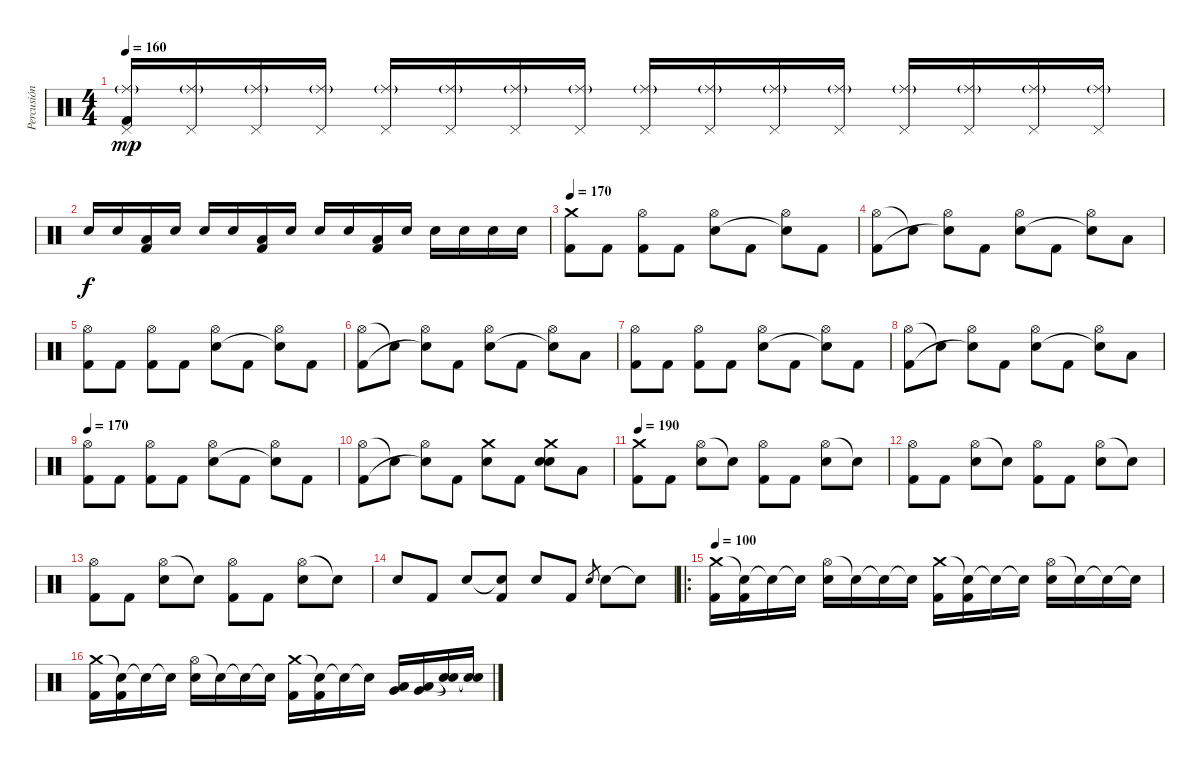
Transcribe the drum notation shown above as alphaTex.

\track ("Percusión" "Percusión") {instrument percussion}
\staff {score}
\articulation defaults
\ts (4 4)
\tempo 160
\clef neutral
\ks c
("Pedal Hi-Hat (hit)" "Ride (middle)"{g} "Kick (hit) 2").16{dy mp} ("Pedal Hi-Hat (hit)" "Ride (middle)"{g}).16 ("Pedal Hi-Hat (hit)" "Ride (middle)"{g}).16 ("Pedal Hi-Hat (hit)" "Ride (middle)"{g}).16 ("Pedal Hi-Hat (hit)" "Ride (middle)"{g}).16 ("Pedal Hi-Hat (hit)" "Ride (middle)"{g}).16 ("Pedal Hi-Hat (hit)" "Ride (middle)"{g}).16 ("Pedal Hi-Hat (hit)" "Ride (middle)"{g}).16 ("Pedal Hi-Hat (hit)" "Ride (middle)"{g}).16 ("Pedal Hi-Hat (hit)" "Ride (middle)"{g}).16 ("Pedal Hi-Hat (hit)" "Ride (middle)"{g}).16 ("Pedal Hi-Hat (hit)" "Ride (middle)"{g}).16 ("Pedal Hi-Hat (hit)" "Ride (middle)"{g}).16 ("Pedal Hi-Hat (hit)" "Ride (middle)"{g}).16 ("Pedal Hi-Hat (hit)" "Ride (middle)"{g}).16 ("Pedal Hi-Hat (hit)" "Ride (middle)"{g}).16 |
"Electric Snare (hit)".16{dy f} "Electric Snare (hit)".16 ("Low Tom (hit)" "Kick (hit) 2").16 "Electric Snare (hit)".16 "Electric Snare (hit)".16 "Electric Snare (hit)".16 ("Low Tom (hit)" "Kick (hit) 2").16 "Electric Snare (hit)".16 "Electric Snare (hit)".16 "Electric Snare (hit)".16 ("Low Tom (hit)" "Kick (hit) 2").16 "Electric Snare (hit)".16 "Electric Snare (hit)".16 "Electric Snare (hit)".16 "Electric Snare (hit)".16 "Electric Snare (hit)".16 |
\tempo 170
("Crash medium (hit)" "Kick (hit) 2").8 "Kick (hit) 2".8 ("Hi-Hat (open)" "Kick (hit) 2").8 "Kick (hit) 2".8 ("Hi-Hat (open)" "Electric Snare (hit)").8 "Kick (hit) 2".8 ("Hi-Hat (open)" "Snare (hit)"{t}).8 "Kick (hit) 2".8 |
("Hi-Hat (open)" "Kick (hit) 2").8 "Snare (hit)"{t}.8 ("Hi-Hat (open)" "Snare (hit)"{t}).8 "Kick (hit) 2".8 ("Hi-Hat (open)" "Electric Snare (hit)").8 "Kick (hit) 2".8 ("Hi-Hat (open)" "Snare (hit)"{t}).8 "Low Tom (hit)".8 |
("Hi-Hat (open)" "Kick (hit) 2").8 "Kick (hit) 2".8 ("Hi-Hat (open)" "Kick (hit) 2").8 "Kick (hit) 2".8 ("Hi-Hat (open)" "Electric Snare (hit)").8 "Kick (hit) 2".8 ("Hi-Hat (open)" "Snare (hit)"{t}).8 "Kick (hit) 2".8 |
("Hi-Hat (open)" "Kick (hit) 2").8 "Snare (hit)"{t}.8 ("Hi-Hat (open)" "Snare (hit)"{t}).8 "Kick (hit) 2".8 ("Hi-Hat (open)" "Electric Snare (hit)").8 "Kick (hit) 2".8 ("Hi-Hat (open)" "Snare (hit)"{t}).8 "Low Tom (hit)".8 |
("Hi-Hat (open)" "Kick (hit) 2").8 "Kick (hit) 2".8 ("Hi-Hat (open)" "Kick (hit) 2").8 "Kick (hit) 2".8 ("Hi-Hat (open)" "Electric Snare (hit)").8 "Kick (hit) 2".8 ("Hi-Hat (open)" "Snare (hit)"{t}).8 "Kick (hit) 2".8 |
("Hi-Hat (open)" "Kick (hit) 2").8 "Snare (hit)"{t}.8 ("Hi-Hat (open)" "Snare (hit)"{t}).8 "Kick (hit) 2".8 ("Hi-Hat (open)" "Electric Snare (hit)").8 "Kick (hit) 2".8 ("Hi-Hat (open)" "Snare (hit)"{t}).8 "Low Tom (hit)".8 |
\tempo 170
("Hi-Hat (open)" "Kick (hit) 2").8 "Kick (hit) 2".8 ("Hi-Hat (open)" "Kick (hit) 2").8 "Kick (hit) 2".8 ("Hi-Hat (open)" "Electric Snare (hit)").8 "Kick (hit) 2".8 ("Hi-Hat (open)" "Snare (hit)"{t}).8 "Kick (hit) 2".8 |
("Hi-Hat (open)" "Kick (hit) 2").8 "Snare (hit)"{t}.8 ("Hi-Hat (open)" "Snare (hit)"{t}).8 "Kick (hit) 2".8 ("Crash medium (hit)" "Electric Snare (hit)").8 "Kick (hit) 2".8 ("Crash medium (hit)" "Electric Snare (hit)" "Snare (hit)").8 "Low Tom (hit)".8 |
\tempo 190
("Crash medium (hit)" "Kick (hit) 2").8 "Kick (hit) 2".8 ("Hi-Hat (open)" "Electric Snare (hit)").8 "Snare (hit)"{t}.8 ("Hi-Hat (open)" "Kick (hit) 2").8 "Kick (hit) 2".8 ("Hi-Hat (open)" "Electric Snare (hit)").8 "Snare (hit)"{t}.8 |
("Hi-Hat (open)" "Kick (hit) 2").8 "Kick (hit) 2".8 ("Hi-Hat (open)" "Electric Snare (hit)").8 "Snare (hit)"{t}.8 ("Hi-Hat (open)" "Kick (hit) 2").8 "Kick (hit) 2".8 ("Hi-Hat (open)" "Electric Snare (hit)").8 "Snare (hit)"{t}.8 |
("Hi-Hat (open)" "Kick (hit) 2").8 "Kick (hit) 2".8 ("Hi-Hat (open)" "Electric Snare (hit)").8 "Snare (hit)"{t}.8 ("Hi-Hat (open)" "Kick (hit) 2").8 "Kick (hit) 2".8 ("Hi-Hat (open)" "Electric Snare (hit)").8 "Snare (hit)"{t}.8 |
"Electric Snare (hit)".8 "Kick (hit) 2".8 "Electric Snare (hit)".8 ("Snare (hit)"{t} "Kick (hit) 2").8 "Electric Snare (hit)".8 "Kick (hit) 2".8 "Electric Snare (hit)".8{gr} "Electric Snare (hit)".8 "Snare (hit)"{t}.8 |
\ro
\tempo 100
("Crash medium (hit)" "Kick (hit) 2").16 ("Snare (hit)"{t} "Kick (hit) 2").16 "Snare (hit)"{t}.16 "Snare (hit)"{t}.16 ("Hi-Hat (open)" "Electric Snare (hit)").16 "Snare (hit)"{t}.16 "Snare (hit)"{t}.16 "Snare (hit)"{t}.16 ("Crash medium (hit)" "Kick (hit) 2").16 ("Snare (hit)"{t} "Kick (hit) 2").16 "Snare (hit)"{t}.16 "Snare (hit)"{t}.16 ("Hi-Hat (open)" "Electric Snare (hit)").16 "Snare (hit)"{t}.16 "Snare (hit)"{t}.16 "Snare (hit)"{t}.16 |
("Crash medium (hit)" "Kick (hit) 2").16 ("Snare (hit)"{t} "Kick (hit) 2").16 "Snare (hit)"{t}.16 "Snare (hit)"{t}.16 ("Hi-Hat (open)" "Electric Snare (hit)").16 "Snare (hit)"{t}.16 "Snare (hit)"{t}.16 "Snare (hit)"{t}.16 ("Crash medium (hit)" "Kick (hit) 2").16 ("Snare (hit)"{t} "Kick (hit) 2").16 "Snare (hit)"{t}.16 "Snare (hit)"{t}.16 ("Very Low Tom (hit)" "Low Tom (hit)").16 ("Very Low Tom (hit)" "Low Tom (hit)").16 ("Snare (hit)"{t} "Snare (hit)"{t}).16 ("Snare (hit)"{t} "Snare (hit)"{t}).16
